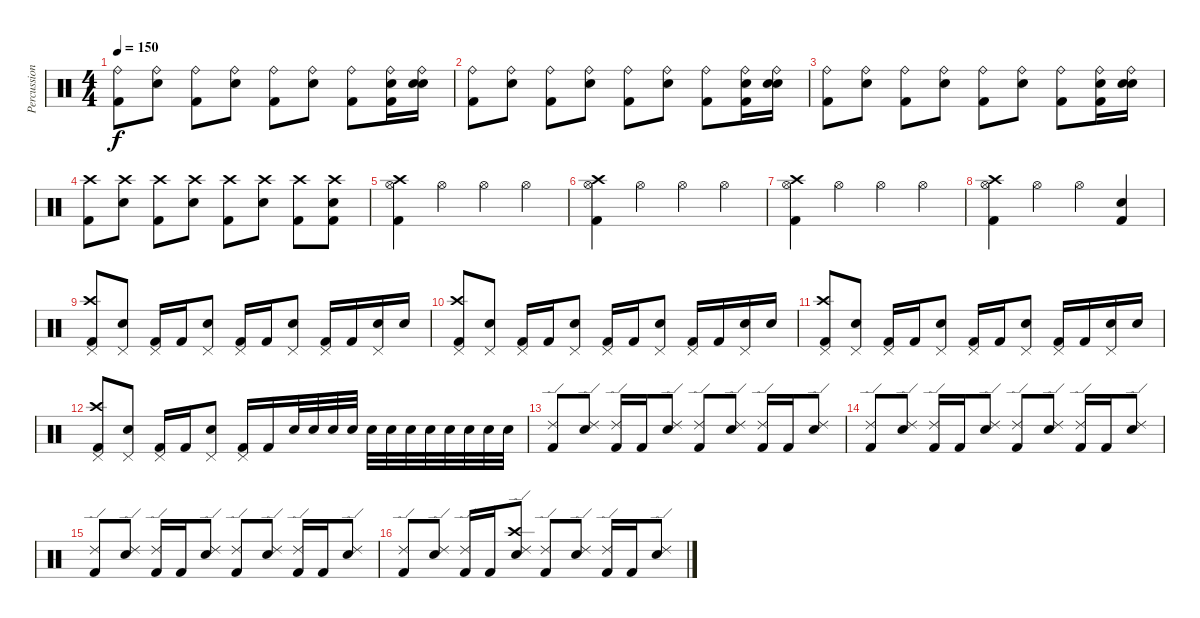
\track ("Percussion" "Percussion") {instrument percussion}
\staff {score}
\articulation defaults
\ts (4 4)
\tempo 150
\clef neutral
\ks c
("Ride (bell)" "Kick (hit) 2").8{dy f} ("Ride (bell)" "Snare (hit) 2").8 ("Ride (bell)" "Kick (hit) 2").8 ("Ride (bell)" "Snare (hit) 2").8 ("Ride (bell)" "Kick (hit) 2").8 ("Ride (bell)" "Snare (hit) 2").8 ("Ride (bell)" "Kick (hit) 2").8 ("Ride (bell)" "Snare (hit) 2" "Kick (hit) 2").16 ("Ride (bell)" "Snare (hit) 2" "Snare (hit) 2").16 |
("Ride (bell)" "Kick (hit) 2").8 ("Ride (bell)" "Snare (hit) 2").8 ("Ride (bell)" "Kick (hit) 2").8 ("Ride (bell)" "Snare (hit) 2").8 ("Ride (bell)" "Kick (hit) 2").8 ("Ride (bell)" "Snare (hit) 2").8 ("Ride (bell)" "Kick (hit) 2").8 ("Ride (bell)" "Snare (hit) 2" "Kick (hit) 2").16 ("Ride (bell)" "Snare (hit) 2" "Snare (hit) 2").16 |
("Ride (bell)" "Kick (hit) 2").8 ("Ride (bell)" "Snare (hit) 2").8 ("Ride (bell)" "Kick (hit) 2").8 ("Ride (bell)" "Snare (hit) 2").8 ("Ride (bell)" "Kick (hit) 2").8 ("Ride (bell)" "Snare (hit) 2").8 ("Ride (bell)" "Kick (hit) 2").8 ("Ride (bell)" "Snare (hit) 2" "Kick (hit) 2").16 ("Ride (bell)" "Snare (hit) 2" "Snare (hit) 2").16 |
("Crash high (hit)" "Kick (hit) 2").8 ("Crash high (hit)" "Snare (hit) 2").8 ("Crash high (hit)" "Kick (hit) 2").8 ("Crash high (hit)" "Snare (hit) 2").8 ("Crash high (hit)" "Kick (hit) 2").8 ("Crash high (hit)" "Snare (hit) 2").8 ("Crash high (hit)" "Kick (hit) 2").8 ("Crash high (hit)" "Snare (hit) 2" "Kick (hit) 2").8 |
("Crash high (hit)" "Hi-Hat (open)" "Kick (hit) 2").4 "Hi-Hat (open)".4 "Hi-Hat (open)".4 "Hi-Hat (open)".4 |
("Crash high (hit)" "Hi-Hat (open)" "Kick (hit) 2").4 "Hi-Hat (open)".4 "Hi-Hat (open)".4 "Hi-Hat (open)".4 |
("Crash high (hit)" "Hi-Hat (open)" "Kick (hit) 2").4 "Hi-Hat (open)".4 "Hi-Hat (open)".4 "Hi-Hat (open)".4 |
("Crash high (hit)" "Hi-Hat (open)" "Kick (hit) 2").4 "Hi-Hat (open)".4 "Hi-Hat (open)".4 ("Electric Snare (hit)" "Kick (hit) 2").4 |
("Crash high (hit)" "Pedal Hi-Hat (hit)" "Kick (hit) 2").8 ("Pedal Hi-Hat (hit)" "Snare (hit) 2").8 ("Pedal Hi-Hat (hit)" "Kick (hit) 2").16 "Kick (hit) 2".16 ("Pedal Hi-Hat (hit)" "Snare (hit) 2").8 ("Pedal Hi-Hat (hit)" "Kick (hit) 2").16 "Kick (hit) 2".16 ("Pedal Hi-Hat (hit)" "Snare (hit) 2").8 ("Pedal Hi-Hat (hit)" "Kick (hit) 2").16 "Kick (hit) 2".16 ("Pedal Hi-Hat (hit)" "Snare (hit) 2").16 "Snare (hit) 2".16 |
("Crash high (hit)" "Pedal Hi-Hat (hit)" "Kick (hit) 2").8 ("Pedal Hi-Hat (hit)" "Snare (hit) 2").8 ("Pedal Hi-Hat (hit)" "Kick (hit) 2").16 "Kick (hit) 2".16 ("Pedal Hi-Hat (hit)" "Snare (hit) 2").8 ("Pedal Hi-Hat (hit)" "Kick (hit) 2").16 "Kick (hit) 2".16 ("Pedal Hi-Hat (hit)" "Snare (hit) 2").8 ("Pedal Hi-Hat (hit)" "Kick (hit) 2").16 "Kick (hit) 2".16 ("Pedal Hi-Hat (hit)" "Snare (hit) 2").16 "Snare (hit) 2".16 |
("Crash high (hit)" "Pedal Hi-Hat (hit)" "Kick (hit) 2").8 ("Pedal Hi-Hat (hit)" "Snare (hit) 2").8 ("Pedal Hi-Hat (hit)" "Kick (hit) 2").16 "Kick (hit) 2".16 ("Pedal Hi-Hat (hit)" "Snare (hit) 2").8 ("Pedal Hi-Hat (hit)" "Kick (hit) 2").16 "Kick (hit) 2".16 ("Pedal Hi-Hat (hit)" "Snare (hit) 2").8 ("Pedal Hi-Hat (hit)" "Kick (hit) 2").16 "Kick (hit) 2".16 ("Pedal Hi-Hat (hit)" "Snare (hit) 2").16 "Snare (hit) 2".16 |
("Crash high (hit)" "Pedal Hi-Hat (hit)" "Kick (hit) 2").8 ("Pedal Hi-Hat (hit)" "Snare (hit) 2").8 ("Pedal Hi-Hat (hit)" "Kick (hit) 2").16 "Kick (hit) 2".16 ("Pedal Hi-Hat (hit)" "Snare (hit) 2").8 ("Pedal Hi-Hat (hit)" "Kick (hit) 2").16 "Kick (hit) 2".16 "Snare (hit) 2".32 "Snare (hit) 2".32 "Snare (hit) 2".32 "Snare (hit) 2".32 "Snare (hit) 2".32 "Snare (hit) 2".32 "Snare (hit) 2".32 "Snare (hit) 2".32 "Snare (hit) 2".32 "Snare (hit) 2".32 "Snare (hit) 2".32 "Snare (hit) 2".32 |
("Ride (edge) 2" "Kick (hit) 2").8 ("Ride (edge) 2" "Snare (hit) 2").8 ("Ride (edge) 2" "Kick (hit) 2").16 "Kick (hit) 2".16 ("Ride (edge) 2" "Snare (hit) 2").8 ("Ride (edge) 2" "Kick (hit) 2").8 ("Ride (edge) 2" "Snare (hit) 2").8 ("Ride (edge) 2" "Kick (hit) 2").16 "Kick (hit) 2".16 ("Ride (edge) 2" "Snare (hit) 2").8 |
("Ride (edge) 2" "Kick (hit) 2").8 ("Ride (edge) 2" "Snare (hit) 2").8 ("Ride (edge) 2" "Kick (hit) 2").16 "Kick (hit) 2".16 ("Ride (edge) 2" "Snare (hit) 2").8 ("Ride (edge) 2" "Kick (hit) 2").8 ("Ride (edge) 2" "Snare (hit) 2").8 ("Ride (edge) 2" "Kick (hit) 2").16 "Kick (hit) 2".16 ("Ride (edge) 2" "Snare (hit) 2").8 |
("Ride (edge) 2" "Kick (hit) 2").8 ("Ride (edge) 2" "Snare (hit) 2").8 ("Ride (edge) 2" "Kick (hit) 2").16 "Kick (hit) 2".16 ("Ride (edge) 2" "Snare (hit) 2").8 ("Ride (edge) 2" "Kick (hit) 2").8 ("Ride (edge) 2" "Snare (hit) 2").8 ("Ride (edge) 2" "Kick (hit) 2").16 "Kick (hit) 2".16 ("Ride (edge) 2" "Snare (hit) 2").8 |
("Ride (edge) 2" "Kick (hit) 2").8 ("Ride (edge) 2" "Snare (hit) 2").8 ("Ride (edge) 2" "Kick (hit) 2").16 "Kick (hit) 2".16 ("Crash high (hit)" "Ride (edge) 2" "Snare (hit) 2").8 ("Ride (edge) 2" "Kick (hit) 2").8 ("Ride (edge) 2" "Snare (hit) 2").8 ("Ride (edge) 2" "Kick (hit) 2").16 "Kick (hit) 2".16 ("Ride (edge) 2" "Snare (hit) 2").8
